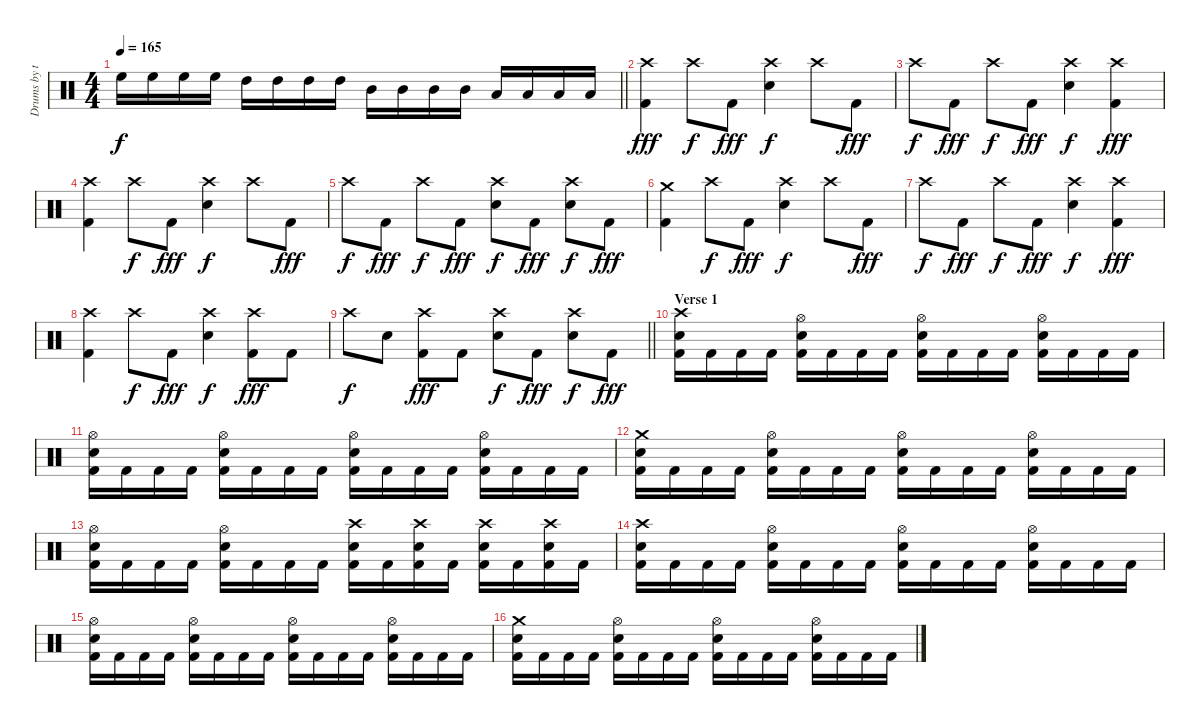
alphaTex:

\track ("Drums by terryn0" "Drums by t") {instrument percussion}
\staff {score}
\articulation defaults
\ts (4 4)
\tempo 165
\clef neutral
\barLineRight lightlight
\ks c "High Floor Tom (hit)".16{dy f} "High Floor Tom (hit)".16 "High Floor Tom (hit)".16 "High Floor Tom (hit)".16 "High Tom (hit)".16 "High Tom (hit)".16 "High Tom (hit)".16 "High Tom (hit)".16 "Mid Tom (hit)".16 "Mid Tom (hit)".16 "Mid Tom (hit)".16 "Mid Tom (hit)".16 "Low Tom (hit)".16 "Low Tom (hit)".16 "Low Tom (hit)".16 "Low Tom (hit)".16
|
("Crash high (hit)" "Kick (hit) 2").4{dy fff} "Crash high (hit)".8{dy f} "Kick (hit) 2".8{dy fff} ("Crash high (hit)" "Electric Snare (hit)").4{dy f} "Crash high (hit)".8 "Kick (hit) 2".8{dy fff} |
"Crash high (hit)".8{dy f} "Kick (hit) 2".8{dy fff} "Crash high (hit)".8{dy f} "Kick (hit) 2".8{dy fff} ("Crash high (hit)" "Electric Snare (hit)").4{dy f} ("Crash high (hit)" "Kick (hit) 2").4{dy fff} |
("Crash high (hit)" "Kick (hit) 2").4 "Crash high (hit)".8{dy f} "Kick (hit) 2".8{dy fff} ("Crash high (hit)" "Electric Snare (hit)").4{dy f} "Crash high (hit)".8 "Kick (hit) 2".8{dy fff} |
"Crash high (hit)".8{dy f} "Kick (hit) 2".8{dy fff} "Crash high (hit)".8{dy f} "Kick (hit) 2".8{dy fff} ("Crash high (hit)" "Electric Snare (hit)").8{dy f} "Kick (hit) 2".8{dy fff} ("Crash high (hit)" "Electric Snare (hit)").8{dy f} "Kick (hit) 2".8{dy fff} |
("Crash medium (hit)" "Kick (hit) 2").4 "Crash high (hit)".8{dy f} "Kick (hit) 2".8{dy fff} ("Crash high (hit)" "Electric Snare (hit)").4{dy f} "Crash high (hit)".8 "Kick (hit) 2".8{dy fff} |
"Crash high (hit)".8{dy f} "Kick (hit) 2".8{dy fff} "Crash high (hit)".8{dy f} "Kick (hit) 2".8{dy fff} ("Crash high (hit)" "Electric Snare (hit)").4{dy f} ("Crash high (hit)" "Kick (hit) 2").4{dy fff} |
("Crash high (hit)" "Kick (hit) 2").4 "Crash high (hit)".8{dy f} "Kick (hit) 2".8{dy fff} ("Crash high (hit)" "Electric Snare (hit)").4{dy f} ("Crash high (hit)" "Kick (hit) 2").8{dy fff} "Kick (hit) 2".8 |
\barLineRight lightlight "Crash high (hit)".8{dy f} "Electric Snare (hit)".8
("Crash high (hit)" "Kick (hit) 2").8{dy fff} "Kick (hit) 2".8 ("Crash high (hit)" "Electric Snare (hit)").8{dy f} "Kick (hit) 2".8{dy fff} ("Crash high (hit)" "Electric Snare (hit)").8{dy f} "Kick (hit) 2".8{dy fff} |
\section ("" "Verse 1")
("Crash high (hit)" "Electric Snare (hit)" "Kick (hit) 2").16 "Kick (hit) 2".16 "Kick (hit) 2".16 "Kick (hit) 2".16 ("Hi-Hat (open)" "Electric Snare (hit)" "Kick (hit) 2").16 "Kick (hit) 2".16 "Kick (hit) 2".16 "Kick (hit) 2".16 ("Hi-Hat (open)" "Electric Snare (hit)" "Kick (hit) 2").16 "Kick (hit) 2".16 "Kick (hit) 2".16 "Kick (hit) 2".16 ("Hi-Hat (open)" "Electric Snare (hit)" "Kick (hit) 2").16 "Kick (hit) 2".16 "Kick (hit) 2".16 "Kick (hit) 2".16 |
("Hi-Hat (open)" "Electric Snare (hit)" "Kick (hit) 2").16 "Kick (hit) 2".16 "Kick (hit) 2".16 "Kick (hit) 2".16 ("Hi-Hat (open)" "Electric Snare (hit)" "Kick (hit) 2").16 "Kick (hit) 2".16 "Kick (hit) 2".16 "Kick (hit) 2".16 ("Hi-Hat (open)" "Electric Snare (hit)" "Kick (hit) 2").16 "Kick (hit) 2".16 "Kick (hit) 2".16 "Kick (hit) 2".16 ("Hi-Hat (open)" "Electric Snare (hit)" "Kick (hit) 2").16 "Kick (hit) 2".16 "Kick (hit) 2".16 "Kick (hit) 2".16 |
("Crash medium (hit)" "Electric Snare (hit)" "Kick (hit) 2").16 "Kick (hit) 2".16 "Kick (hit) 2".16 "Kick (hit) 2".16 ("Hi-Hat (open)" "Electric Snare (hit)" "Kick (hit) 2").16 "Kick (hit) 2".16 "Kick (hit) 2".16 "Kick (hit) 2".16 ("Hi-Hat (open)" "Electric Snare (hit)" "Kick (hit) 2").16 "Kick (hit) 2".16 "Kick (hit) 2".16 "Kick (hit) 2".16 ("Hi-Hat (open)" "Electric Snare (hit)" "Kick (hit) 2").16 "Kick (hit) 2".16 "Kick (hit) 2".16 "Kick (hit) 2".16 |
("Hi-Hat (open)" "Electric Snare (hit)" "Kick (hit) 2").16 "Kick (hit) 2".16 "Kick (hit) 2".16 "Kick (hit) 2".16 ("Hi-Hat (open)" "Electric Snare (hit)" "Kick (hit) 2").16 "Kick (hit) 2".16 "Kick (hit) 2".16 "Kick (hit) 2".16 ("Crash high (hit)" "Electric Snare (hit)" "Kick (hit) 2").16 "Kick (hit) 2".16 ("Crash high (hit)" "Electric Snare (hit)" "Kick (hit) 2").16 "Kick (hit) 2".16 ("Crash high (hit)" "Electric Snare (hit)" "Kick (hit) 2").16 "Kick (hit) 2".16 ("Crash high (hit)" "Electric Snare (hit)" "Kick (hit) 2").16 "Kick (hit) 2".16 |
("Crash high (hit)" "Electric Snare (hit)" "Kick (hit) 2").16 "Kick (hit) 2".16 "Kick (hit) 2".16 "Kick (hit) 2".16 ("Hi-Hat (open)" "Electric Snare (hit)" "Kick (hit) 2").16 "Kick (hit) 2".16 "Kick (hit) 2".16 "Kick (hit) 2".16 ("Hi-Hat (open)" "Electric Snare (hit)" "Kick (hit) 2").16 "Kick (hit) 2".16 "Kick (hit) 2".16 "Kick (hit) 2".16 ("Hi-Hat (open)" "Electric Snare (hit)" "Kick (hit) 2").16 "Kick (hit) 2".16 "Kick (hit) 2".16 "Kick (hit) 2".16 |
("Hi-Hat (open)" "Electric Snare (hit)" "Kick (hit) 2").16 "Kick (hit) 2".16 "Kick (hit) 2".16 "Kick (hit) 2".16 ("Hi-Hat (open)" "Electric Snare (hit)" "Kick (hit) 2").16 "Kick (hit) 2".16 "Kick (hit) 2".16 "Kick (hit) 2".16 ("Hi-Hat (open)" "Electric Snare (hit)" "Kick (hit) 2").16 "Kick (hit) 2".16 "Kick (hit) 2".16 "Kick (hit) 2".16 ("Hi-Hat (open)" "Electric Snare (hit)" "Kick (hit) 2").16 "Kick (hit) 2".16 "Kick (hit) 2".16 "Kick (hit) 2".16 |
("Crash medium (hit)" "Electric Snare (hit)" "Kick (hit) 2").16 "Kick (hit) 2".16 "Kick (hit) 2".16 "Kick (hit) 2".16 ("Hi-Hat (open)" "Electric Snare (hit)" "Kick (hit) 2").16 "Kick (hit) 2".16 "Kick (hit) 2".16 "Kick (hit) 2".16 ("Hi-Hat (open)" "Electric Snare (hit)" "Kick (hit) 2").16 "Kick (hit) 2".16 "Kick (hit) 2".16 "Kick (hit) 2".16 ("Hi-Hat (open)" "Electric Snare (hit)" "Kick (hit) 2").16 "Kick (hit) 2".16 "Kick (hit) 2".16 "Kick (hit) 2".16
